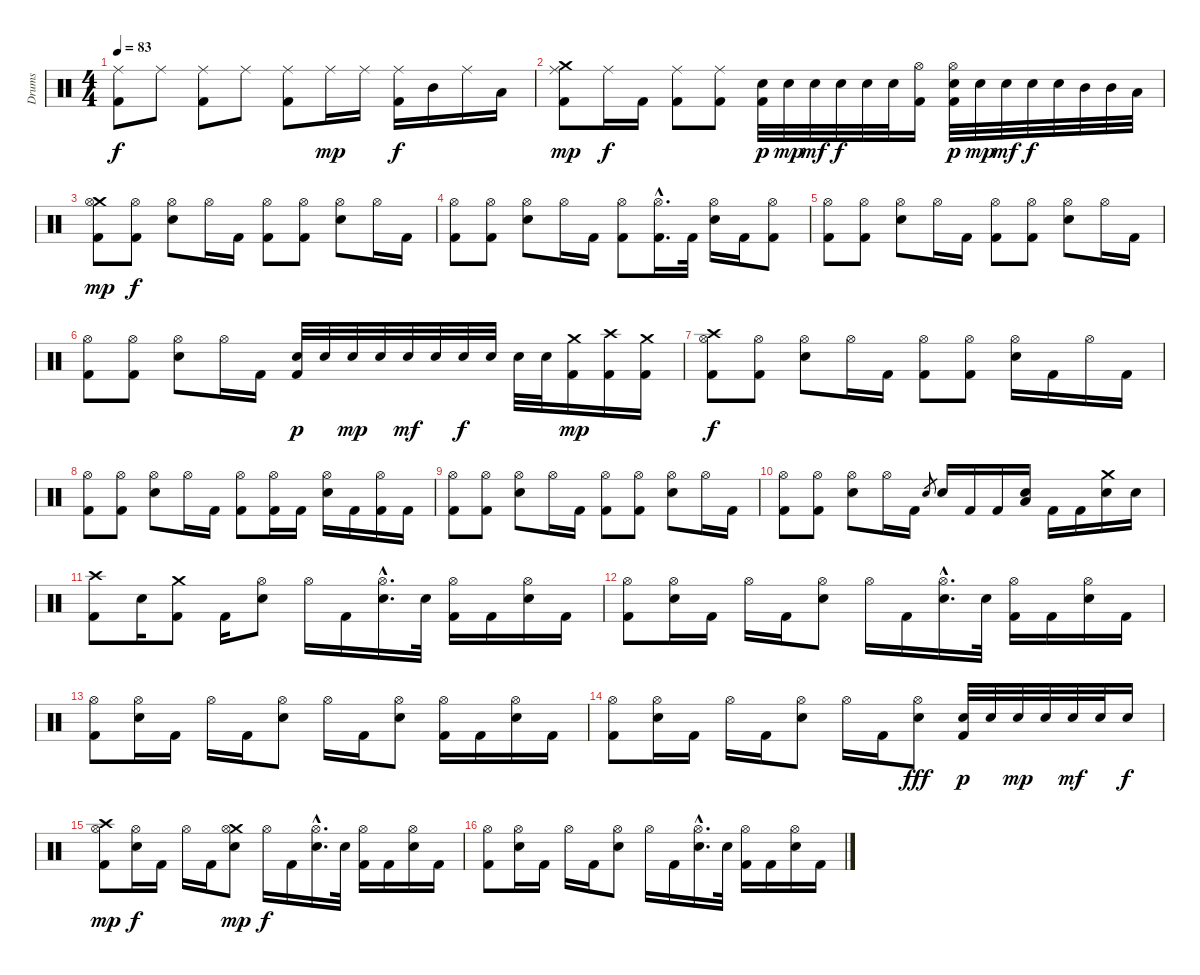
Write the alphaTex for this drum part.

\track ("Drums" "Drums") {instrument percussion}
\staff {score}
\articulation defaults
\ts (4 4)
\tempo 83
\clef neutral
\ks c
("Ride (middle)" "Kick (hit) 2").8{dy f} "Ride (middle)".8 ("Ride (middle)" "Kick (hit) 2").8 "Ride (middle)".8 ("Ride (middle)" "Kick (hit) 2").8 "Ride (middle)".16{dy mp} "Ride (middle)".16 ("Ride (middle)" "Kick (hit) 2").16{dy f} "Mid Tom (hit)".16 "Ride (middle)".16 "Low Tom (hit)".16 |
("Crash medium (hit)" "Ride (middle)" "Kick (hit) 2").8{dy mp} "Ride (middle)".16{dy f} "Kick (hit) 2".16 ("Ride (middle)" "Kick (hit) 2").8 ("Ride (middle)" "Kick (hit) 2").8 ("Electric Snare (hit)" "Kick (hit) 2").32{dy p} "Electric Snare (hit)".32{dy mp} "Electric Snare (hit)".32{dy mf} "Electric Snare (hit)".32{dy f} "Electric Snare (hit)".32 "Electric Snare (hit)".32 ("Hi-Hat (open)" "Kick (hit) 2").16 ("Hi-Hat (open)" "Electric Snare (hit)" "Kick (hit) 2").32{dy p} "Electric Snare (hit)".32{dy mp} "Electric Snare (hit)".32{dy mf} "Electric Snare (hit)".32{dy f} "Electric Snare (hit)".32 "Mid Tom (hit)".32 "Mid Tom (hit)".32 "Low Tom (hit)".32 |
("Crash medium (hit)" "Hi-Hat (open)" "Kick (hit) 2").8{dy mp} ("Hi-Hat (open)" "Kick (hit) 2").8{dy f} ("Hi-Hat (open)" "Electric Snare (hit)").8 "Hi-Hat (open)".16 "Kick (hit) 2".16 ("Hi-Hat (open)" "Kick (hit) 2").8 ("Hi-Hat (open)" "Kick (hit) 2").8 ("Hi-Hat (open)" "Electric Snare (hit)").8 "Hi-Hat (open)".16 "Kick (hit) 2".16 |
("Hi-Hat (open)" "Kick (hit) 2").8 ("Hi-Hat (open)" "Kick (hit) 2").8 ("Hi-Hat (open)" "Electric Snare (hit)").8 "Hi-Hat (open)".16 "Kick (hit) 2".16 ("Hi-Hat (open)" "Kick (hit) 2").8 ("Hi-Hat (open)"{hac} "Kick (hit) 2"{hac}).16{d} "Kick (hit) 2".32 ("Hi-Hat (open)" "Electric Snare (hit)").16 "Kick (hit) 2".16 ("Hi-Hat (open)" "Kick (hit) 2").8 |
("Hi-Hat (open)" "Kick (hit) 2").8 ("Hi-Hat (open)" "Kick (hit) 2").8 ("Hi-Hat (open)" "Electric Snare (hit)").8 "Hi-Hat (open)".16 "Kick (hit) 2".16 ("Hi-Hat (open)" "Kick (hit) 2").8 ("Hi-Hat (open)" "Kick (hit) 2").8 ("Hi-Hat (open)" "Electric Snare (hit)").8 "Hi-Hat (open)".16 "Kick (hit) 2".16 |
("Hi-Hat (open)" "Kick (hit) 2").8 ("Hi-Hat (open)" "Kick (hit) 2").8 ("Hi-Hat (open)" "Electric Snare (hit)").8 "Hi-Hat (open)".16 "Kick (hit) 2".16 ("Electric Snare (hit)" "Kick (hit) 2").32{dy p} "Electric Snare (hit)".32 "Electric Snare (hit)".32{dy mp} "Electric Snare (hit)".32 "Electric Snare (hit)".32{dy mf} "Electric Snare (hit)".32 "Electric Snare (hit)".32{dy f} "Electric Snare (hit)".32 "Electric Snare (hit)".32 "Electric Snare (hit)".32 ("Crash medium (hit)" "Kick (hit) 2").16{dy mp} ("Crash high (hit)" "Kick (hit) 2").16 ("Crash medium (hit)" "Kick (hit) 2").16 |
("Crash high (hit)" "Hi-Hat (open)" "Kick (hit) 2").8{dy f} ("Hi-Hat (open)" "Kick (hit) 2").8 ("Hi-Hat (open)" "Electric Snare (hit)").8 "Hi-Hat (open)".16 "Kick (hit) 2".16 ("Hi-Hat (open)" "Kick (hit) 2").8 ("Hi-Hat (open)" "Kick (hit) 2").8 ("Hi-Hat (open)" "Electric Snare (hit)").16 "Kick (hit) 2".16 "Hi-Hat (open)".16 "Kick (hit) 2".16 |
("Hi-Hat (open)" "Kick (hit) 2").8 ("Hi-Hat (open)" "Kick (hit) 2").8 ("Hi-Hat (open)" "Electric Snare (hit)").8 "Hi-Hat (open)".16 "Kick (hit) 2".16 ("Hi-Hat (open)" "Kick (hit) 2").8 ("Hi-Hat (open)" "Kick (hit) 2").16 "Kick (hit) 2".16 ("Hi-Hat (open)" "Electric Snare (hit)").16 "Kick (hit) 2".16 ("Hi-Hat (open)" "Kick (hit) 2").16 "Kick (hit) 2".16 |
("Hi-Hat (open)" "Kick (hit) 2").8 ("Hi-Hat (open)" "Kick (hit) 2").8 ("Hi-Hat (open)" "Electric Snare (hit)").8 "Hi-Hat (open)".16 "Kick (hit) 2".16 ("Hi-Hat (open)" "Kick (hit) 2").8 ("Hi-Hat (open)" "Kick (hit) 2").8 ("Hi-Hat (open)" "Electric Snare (hit)").8 "Hi-Hat (open)".16 "Kick (hit) 2".16 |
("Hi-Hat (open)" "Kick (hit) 2").8 ("Hi-Hat (open)" "Kick (hit) 2").8 ("Hi-Hat (open)" "Electric Snare (hit)").8 "Hi-Hat (open)".16 "Kick (hit) 2".16 "Electric Snare (hit)".8{gr} "Electric Snare (hit)".16 "Kick (hit) 2".16 "Kick (hit) 2".16 ("Electric Snare (hit)" "Low Tom (hit)").16 "Kick (hit) 2".16 "Kick (hit) 2".16 ("Crash medium (hit)" "Electric Snare (hit)").16 "Electric Snare (hit)".16 |
("Crash high (hit)" "Kick (hit) 2").8 "Electric Snare (hit)".16 ("Crash medium (hit)" "Kick (hit) 2").8 "Kick (hit) 2".16 ("Hi-Hat (open)" "Electric Snare (hit)").8 "Hi-Hat (open)".16 "Kick (hit) 2".16 ("Hi-Hat (open)"{hac} "Electric Snare (hit)"{hac}).16{d} "Electric Snare (hit)".32 ("Hi-Hat (open)" "Kick (hit) 2").16 "Kick (hit) 2".16 ("Hi-Hat (open)" "Electric Snare (hit)").16 "Kick (hit) 2".16 |
("Hi-Hat (open)" "Kick (hit) 2").8 ("Hi-Hat (open)" "Electric Snare (hit)").16 "Kick (hit) 2".16 "Hi-Hat (open)".16 "Kick (hit) 2".16 ("Hi-Hat (open)" "Electric Snare (hit)").8 "Hi-Hat (open)".16 "Kick (hit) 2".16 ("Hi-Hat (open)"{hac} "Electric Snare (hit)"{hac}).16{d} "Electric Snare (hit)".32 ("Hi-Hat (open)" "Kick (hit) 2").16 "Kick (hit) 2".16 ("Hi-Hat (open)" "Electric Snare (hit)").16 "Kick (hit) 2".16 |
("Hi-Hat (open)" "Kick (hit) 2").8 ("Hi-Hat (open)" "Electric Snare (hit)").16 "Kick (hit) 2".16 "Hi-Hat (open)".16 "Kick (hit) 2".16 ("Hi-Hat (open)" "Electric Snare (hit)").8 "Hi-Hat (open)".16 "Kick (hit) 2".16 ("Hi-Hat (open)" "Electric Snare (hit)").8 ("Hi-Hat (open)" "Kick (hit) 2").16 "Kick (hit) 2".16 ("Hi-Hat (open)" "Electric Snare (hit)").16 "Kick (hit) 2".16 |
("Hi-Hat (open)" "Kick (hit) 2").8 ("Hi-Hat (open)" "Electric Snare (hit)").16 "Kick (hit) 2".16 "Hi-Hat (open)".16 "Kick (hit) 2".16 ("Hi-Hat (open)" "Electric Snare (hit)").8 "Hi-Hat (open)".16 "Kick (hit) 2".16 ("Hi-Hat (open)" "Electric Snare (hit)").8{dy fff} ("Electric Snare (hit)" "Kick (hit) 2").32{dy p} "Electric Snare (hit)".32 "Electric Snare (hit)".32{dy mp} "Electric Snare (hit)".32 "Electric Snare (hit)".32{dy mf} "Electric Snare (hit)".32 "Electric Snare (hit)".16{dy f} |
("Crash high (hit)" "Hi-Hat (open)" "Kick (hit) 2").8{dy mp} ("Hi-Hat (open)" "Electric Snare (hit)").16{dy f} "Kick (hit) 2".16 "Hi-Hat (open)".16 "Kick (hit) 2".16 ("Crash medium (hit)" "Hi-Hat (open)" "Electric Snare (hit)").8{dy mp} "Hi-Hat (open)".16{dy f} "Kick (hit) 2".16 ("Hi-Hat (open)"{hac} "Electric Snare (hit)"{hac}).16{d} "Electric Snare (hit)".32 ("Hi-Hat (open)" "Kick (hit) 2").16 "Kick (hit) 2".16 ("Hi-Hat (open)" "Electric Snare (hit)").16 "Kick (hit) 2".16 |
("Hi-Hat (open)" "Kick (hit) 2").8 ("Hi-Hat (open)" "Electric Snare (hit)").16 "Kick (hit) 2".16 "Hi-Hat (open)".16 "Kick (hit) 2".16 ("Hi-Hat (open)" "Electric Snare (hit)").8 "Hi-Hat (open)".16 "Kick (hit) 2".16 ("Hi-Hat (open)"{hac} "Electric Snare (hit)"{hac}).16{d} "Electric Snare (hit)".32 ("Hi-Hat (open)" "Kick (hit) 2").16 "Kick (hit) 2".16 ("Hi-Hat (open)" "Electric Snare (hit)").16 "Kick (hit) 2".16
